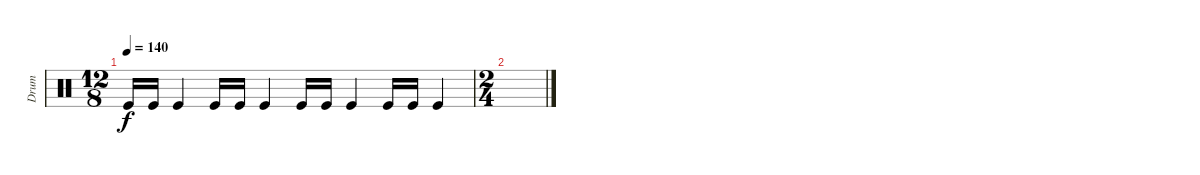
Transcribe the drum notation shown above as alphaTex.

\track ("Drum" "Drum") {instrument percussion}
\staff {score}
\articulation defaults
\ts (12 8)
\tempo 140
\clef neutral
\ks c "Kick (hit)".16{dy f} "Kick (hit)".16 "Kick (hit)".4 "Kick (hit)".16 "Kick (hit)".16 "Kick (hit)".4 "Kick (hit)".16 "Kick (hit)".16 "Kick (hit)".4 "Kick (hit)".16 "Kick (hit)".16 "Kick (hit)".4
|
\ts (2 4)
